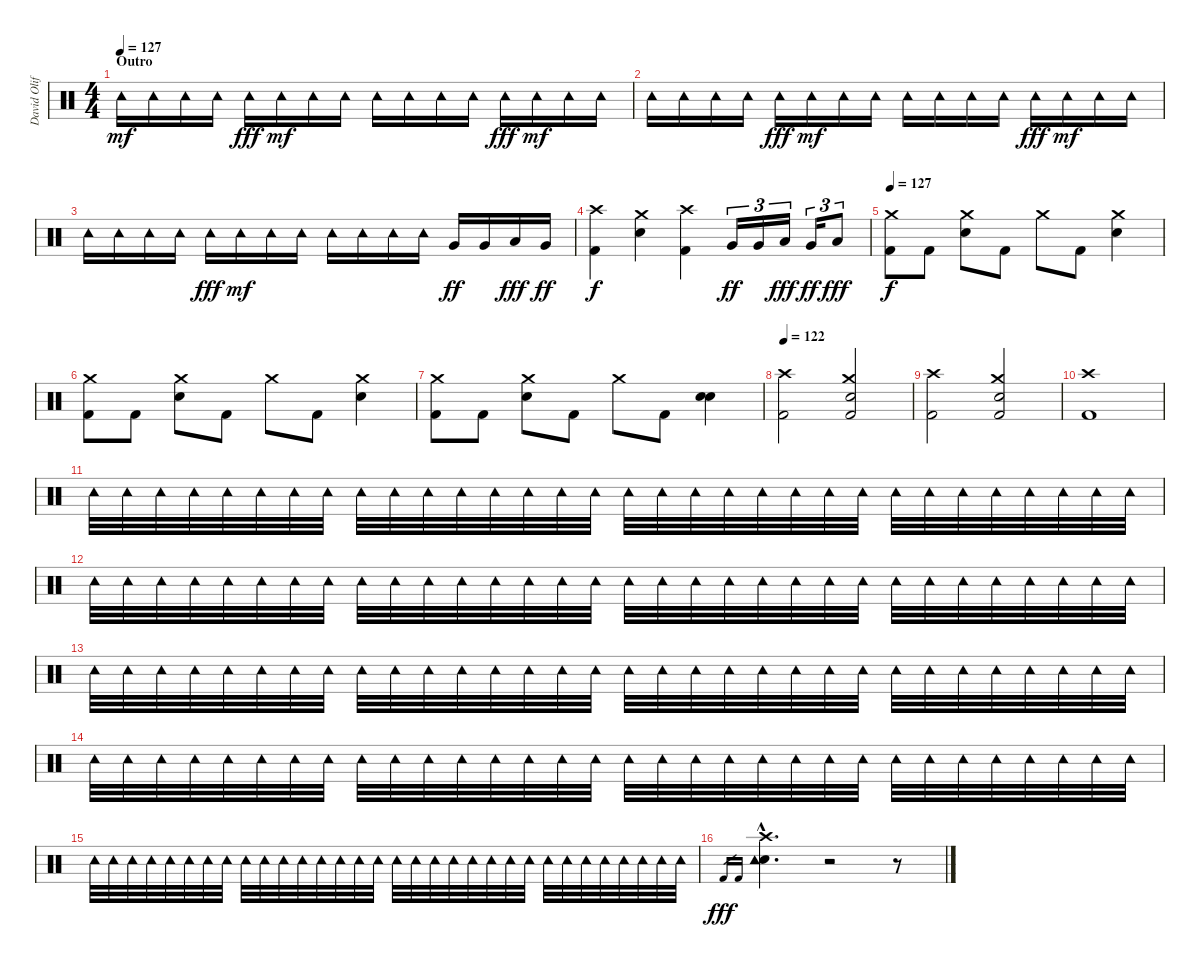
\track ("David Oliffe" "David Olif") {instrument percussion}
\staff {score}
\articulation defaults
\ts (4 4)
\section ("" "Outro")
\tempo 127
\clef neutral
\ks c "Tambourine (hit)".16{dy mf volume 8} "Tambourine (hit)".16 "Tambourine (hit)".16 "Tambourine (hit)".16 "Tambourine (hit)".16{dy fff} "Tambourine (hit)".16{dy mf} "Tambourine (hit)".16 "Tambourine (hit)".16 "Tambourine (hit)".16 "Tambourine (hit)".16 "Tambourine (hit)".16 "Tambourine (hit)".16 "Tambourine (hit)".16{dy fff} "Tambourine (hit)".16{dy mf} "Tambourine (hit)".16 "Tambourine (hit)".16
|
"Tambourine (hit)".16 "Tambourine (hit)".16 "Tambourine (hit)".16 "Tambourine (hit)".16 "Tambourine (hit)".16{dy fff} "Tambourine (hit)".16{dy mf} "Tambourine (hit)".16 "Tambourine (hit)".16 "Tambourine (hit)".16 "Tambourine (hit)".16 "Tambourine (hit)".16 "Tambourine (hit)".16 "Tambourine (hit)".16{dy fff} "Tambourine (hit)".16{dy mf} "Tambourine (hit)".16 "Tambourine (hit)".16 |
"Tambourine (hit)".16 "Tambourine (hit)".16 "Tambourine (hit)".16 "Tambourine (hit)".16 "Tambourine (hit)".16{dy fff} "Tambourine (hit)".16{dy mf} "Tambourine (hit)".16 "Tambourine (hit)".16 "Tambourine (hit)".16 "Tambourine (hit)".16 "Tambourine (hit)".16 "Tambourine (hit)".16 "Very Low Tom (hit)".16{dy ff volume 13} "Very Low Tom (hit)".16 "Low Tom (hit)".16{dy fff} "Very Low Tom (hit)".16{dy ff} |
("Crash high (hit)" "Kick (hit) 2").4{dy f} ("Crash medium (hit)" "Electric Snare (hit)").4 ("Crash high (hit)" "Kick (hit) 2").4 "Very Low Tom (hit)".16{tu (3 2) dy ff} "Very Low Tom (hit)".16{tu (3 2)} "Low Tom (hit)".16{tu (3 2) dy fff} "Very Low Tom (hit)".16{tu (3 2) dy ff} "Low Tom (hit)".8{tu (3 2) dy fff} |
\tempo 127
("Crash medium (hit)" "Kick (hit) 2").8{dy f} "Kick (hit) 2".8 ("Crash medium (hit)" "Electric Snare (hit)").8 "Kick (hit) 2".8 "Crash medium (hit)".8 "Kick (hit) 2".8 ("Crash medium (hit)" "Electric Snare (hit)").4 |
("Crash medium (hit)" "Kick (hit) 2").8 "Kick (hit) 2".8 ("Crash medium (hit)" "Electric Snare (hit)").8 "Kick (hit) 2".8 "Crash medium (hit)".8 "Kick (hit) 2".8 ("Crash medium (hit)" "Electric Snare (hit)").4 |
("Crash medium (hit)" "Kick (hit) 2").8 "Kick (hit) 2".8 ("Crash medium (hit)" "Electric Snare (hit)").8 "Kick (hit) 2".8 "Crash medium (hit)".8 "Kick (hit) 2".8 ("Electric Snare (hit)" "Electric Snare (hit)").4{bu 240} |
\tempo 122
("Crash high (hit)" "Kick (hit) 2").2 ("Crash medium (hit)" "Electric Snare (hit)" "Kick (hit) 2").2 |
("Crash high (hit)" "Kick (hit) 2").2 ("Crash medium (hit)" "Electric Snare (hit)" "Kick (hit) 2").2 |
("Crash high (hit)" "Kick (hit) 2").1 |
"Tambourine (hit)".32{volume 8} "Tambourine (hit)".32 "Tambourine (hit)".32 "Tambourine (hit)".32 "Tambourine (hit)".32 "Tambourine (hit)".32{volume 5} "Tambourine (hit)".32 "Tambourine (hit)".32 "Tambourine (hit)".32 "Tambourine (hit)".32 "Tambourine (hit)".32 "Tambourine (hit)".32 "Tambourine (hit)".32 "Tambourine (hit)".32 "Tambourine (hit)".32 "Tambourine (hit)".32 "Tambourine (hit)".32 "Tambourine (hit)".32 "Tambourine (hit)".32 "Tambourine (hit)".32 "Tambourine (hit)".32 "Tambourine (hit)".32 "Tambourine (hit)".32 "Tambourine (hit)".32 "Tambourine (hit)".32 "Tambourine (hit)".32 "Tambourine (hit)".32 "Tambourine (hit)".32 "Tambourine (hit)".32 "Tambourine (hit)".32 "Tambourine (hit)".32 "Tambourine (hit)".32 |
"Tambourine (hit)".32 "Tambourine (hit)".32 "Tambourine (hit)".32 "Tambourine (hit)".32 "Tambourine (hit)".32 "Tambourine (hit)".32 "Tambourine (hit)".32 "Tambourine (hit)".32 "Tambourine (hit)".32 "Tambourine (hit)".32 "Tambourine (hit)".32 "Tambourine (hit)".32 "Tambourine (hit)".32 "Tambourine (hit)".32 "Tambourine (hit)".32 "Tambourine (hit)".32 "Tambourine (hit)".32 "Tambourine (hit)".32 "Tambourine (hit)".32 "Tambourine (hit)".32 "Tambourine (hit)".32 "Tambourine (hit)".32 "Tambourine (hit)".32 "Tambourine (hit)".32 "Tambourine (hit)".32 "Tambourine (hit)".32 "Tambourine (hit)".32 "Tambourine (hit)".32 "Tambourine (hit)".32 "Tambourine (hit)".32 "Tambourine (hit)".32 "Tambourine (hit)".32 |
"Tambourine (hit)".32 "Tambourine (hit)".32 "Tambourine (hit)".32 "Tambourine (hit)".32 "Tambourine (hit)".32 "Tambourine (hit)".32 "Tambourine (hit)".32 "Tambourine (hit)".32 "Tambourine (hit)".32 "Tambourine (hit)".32 "Tambourine (hit)".32 "Tambourine (hit)".32 "Tambourine (hit)".32 "Tambourine (hit)".32 "Tambourine (hit)".32 "Tambourine (hit)".32 "Tambourine (hit)".32 "Tambourine (hit)".32 "Tambourine (hit)".32 "Tambourine (hit)".32 "Tambourine (hit)".32 "Tambourine (hit)".32 "Tambourine (hit)".32 "Tambourine (hit)".32 "Tambourine (hit)".32 "Tambourine (hit)".32 "Tambourine (hit)".32 "Tambourine (hit)".32 "Tambourine (hit)".32 "Tambourine (hit)".32 "Tambourine (hit)".32 "Tambourine (hit)".32 |
"Tambourine (hit)".32 "Tambourine (hit)".32 "Tambourine (hit)".32 "Tambourine (hit)".32 "Tambourine (hit)".32 "Tambourine (hit)".32 "Tambourine (hit)".32 "Tambourine (hit)".32 "Tambourine (hit)".32 "Tambourine (hit)".32 "Tambourine (hit)".32 "Tambourine (hit)".32 "Tambourine (hit)".32 "Tambourine (hit)".32 "Tambourine (hit)".32 "Tambourine (hit)".32 "Tambourine (hit)".32 "Tambourine (hit)".32 "Tambourine (hit)".32 "Tambourine (hit)".32 "Tambourine (hit)".32 "Tambourine (hit)".32 "Tambourine (hit)".32 "Tambourine (hit)".32 "Tambourine (hit)".32 "Tambourine (hit)".32 "Tambourine (hit)".32 "Tambourine (hit)".32 "Tambourine (hit)".32 "Tambourine (hit)".32 "Tambourine (hit)".32 "Tambourine (hit)".32 |
"Tambourine (hit)".32 "Tambourine (hit)".32 "Tambourine (hit)".32 "Tambourine (hit)".32 "Tambourine (hit)".32 "Tambourine (hit)".32 "Tambourine (hit)".32 "Tambourine (hit)".32 "Tambourine (hit)".32 "Tambourine (hit)".32 "Tambourine (hit)".32 "Tambourine (hit)".32 "Tambourine (hit)".32 "Tambourine (hit)".32 "Tambourine (hit)".32 "Tambourine (hit)".32 "Tambourine (hit)".32 "Tambourine (hit)".32 "Tambourine (hit)".32 "Tambourine (hit)".32 "Tambourine (hit)".32 "Tambourine (hit)".32 "Tambourine (hit)".32 "Tambourine (hit)".32 "Tambourine (hit)".32 "Tambourine (hit)".32 "Tambourine (hit)".32 "Tambourine (hit)".32 "Tambourine (hit)".32 "Tambourine (hit)".32 "Tambourine (hit)".32 "Tambourine (hit)".32{volume 13} |
"Kick (hit) 2".16{gr dy fff} "Kick (hit) 2".16{gr} ("Crash high (hit)"{hac} "Electric Snare (hit)"{hac} "Tambourine (hit)"{hac}).4{d volume 16} r.2 r.8
